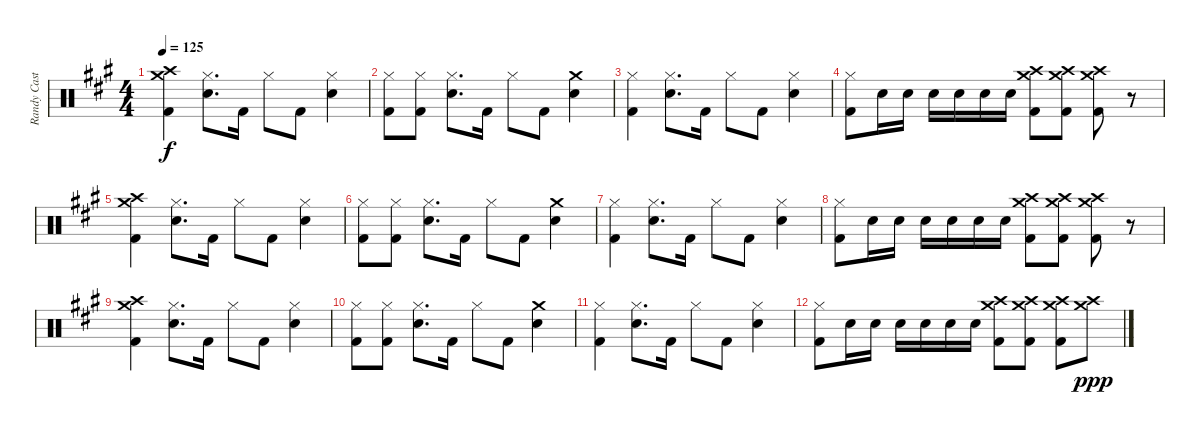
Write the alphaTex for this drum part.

\track ("Randy Castillo - Drums" "Randy Cast") {instrument percussion}
\staff {score}
\articulation defaults
\ts (4 4)
\tempo 125
\clef neutral
\ks a
("Crash medium (hit)" "Crash high (hit)" "Kick (hit) 2").4{dy f} ("Hi-Hat (closed)" "Snare (hit) 2").8{d} "Kick (hit) 2".16 "Hi-Hat (closed)".8 "Kick (hit) 2".8 ("Hi-Hat (closed)" "Snare (hit) 2").4 |
("Hi-Hat (closed)" "Kick (hit) 2").8 ("Hi-Hat (closed)" "Kick (hit) 2").8 ("Hi-Hat (closed)" "Snare (hit) 2").8{d} "Kick (hit) 2".16 "Hi-Hat (closed)".8 "Kick (hit) 2".8 ("Crash medium (hit)" "Snare (hit) 2").4 |
("Hi-Hat (closed)" "Kick (hit) 2").4 ("Hi-Hat (closed)" "Snare (hit) 2").8{d} "Kick (hit) 2".16 "Hi-Hat (closed)".8 "Kick (hit) 2".8 ("Hi-Hat (closed)" "Snare (hit) 2").4 |
("Hi-Hat (closed)" "Kick (hit) 2").8 "Snare (hit) 2".16 "Snare (hit) 2".16 "Snare (hit) 2".16 "Snare (hit) 2".16 "Snare (hit) 2".16 "Snare (hit) 2".16 ("Crash medium (hit)" "Crash high (hit)" "Kick (hit) 2").8 ("Crash high (hit)" "Crash medium (hit)" "Kick (hit) 2").8 ("Crash medium (hit)" "Crash high (hit)" "Kick (hit) 2").8 r.8 |
("Crash medium (hit)" "Crash high (hit)" "Kick (hit) 2").4 ("Hi-Hat (closed)" "Snare (hit) 2").8{d} "Kick (hit) 2".16 "Hi-Hat (closed)".8 "Kick (hit) 2".8 ("Hi-Hat (closed)" "Snare (hit) 2").4 |
("Hi-Hat (closed)" "Kick (hit) 2").8 ("Hi-Hat (closed)" "Kick (hit) 2").8 ("Hi-Hat (closed)" "Snare (hit) 2").8{d} "Kick (hit) 2".16 "Hi-Hat (closed)".8 "Kick (hit) 2".8 ("Crash medium (hit)" "Snare (hit) 2").4 |
("Hi-Hat (closed)" "Kick (hit) 2").4 ("Hi-Hat (closed)" "Snare (hit) 2").8{d} "Kick (hit) 2".16 "Hi-Hat (closed)".8 "Kick (hit) 2".8 ("Hi-Hat (closed)" "Snare (hit) 2").4 |
("Hi-Hat (closed)" "Kick (hit) 2").8 "Snare (hit) 2".16 "Snare (hit) 2".16 "Snare (hit) 2".16 "Snare (hit) 2".16 "Snare (hit) 2".16 "Snare (hit) 2".16 ("Crash medium (hit)" "Crash high (hit)" "Kick (hit) 2").8 ("Crash high (hit)" "Crash medium (hit)" "Kick (hit) 2").8 ("Crash medium (hit)" "Crash high (hit)" "Kick (hit) 2").8 r.8 |
("Crash medium (hit)" "Crash high (hit)" "Kick (hit) 2").4 ("Hi-Hat (closed)" "Snare (hit) 2").8{d} "Kick (hit) 2".16 "Hi-Hat (closed)".8 "Kick (hit) 2".8 ("Hi-Hat (closed)" "Snare (hit) 2").4 |
("Hi-Hat (closed)" "Kick (hit) 2").8 ("Hi-Hat (closed)" "Kick (hit) 2").8 ("Hi-Hat (closed)" "Snare (hit) 2").8{d} "Kick (hit) 2".16 "Hi-Hat (closed)".8 "Kick (hit) 2".8 ("Crash medium (hit)" "Snare (hit) 2").4 |
("Hi-Hat (closed)" "Kick (hit) 2").4 ("Hi-Hat (closed)" "Snare (hit) 2").8{d} "Kick (hit) 2".16 "Hi-Hat (closed)".8 "Kick (hit) 2".8 ("Hi-Hat (closed)" "Snare (hit) 2").4 |
("Hi-Hat (closed)" "Kick (hit) 2").8 "Snare (hit) 2".16 "Snare (hit) 2".16 "Snare (hit) 2".16 "Snare (hit) 2".16 "Snare (hit) 2".16 "Snare (hit) 2".16 ("Crash medium (hit)" "Crash high (hit)" "Kick (hit) 2").8 ("Crash high (hit)" "Crash medium (hit)" "Kick (hit) 2").8 ("Crash medium (hit)" "Crash high (hit)" "Kick (hit) 2").8 ("Crash high (hit)" "Crash medium (hit)").8{dy ppp}
